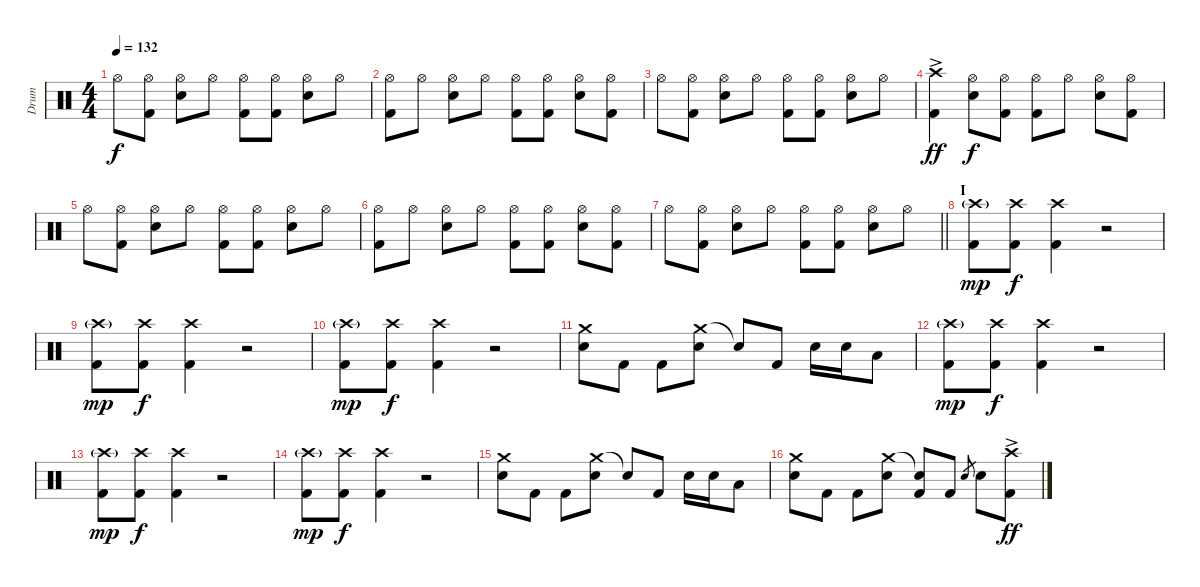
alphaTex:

\track ("Drum" "Drum") {instrument percussion}
\staff {score}
\articulation defaults
\ts (4 4)
\tempo 132
\clef neutral
\ks c "Hi-Hat (open)".8{dy f}
("Hi-Hat (open)" "Kick (hit) 2").8 ("Hi-Hat (open)" "Electric Snare (hit)").8 "Hi-Hat (open)".8 ("Hi-Hat (open)" "Kick (hit) 2").8 ("Hi-Hat (open)" "Kick (hit) 2").8 ("Hi-Hat (open)" "Electric Snare (hit)").8 "Hi-Hat (open)".8 |
("Hi-Hat (open)" "Kick (hit) 2").8 "Hi-Hat (open)".8 ("Hi-Hat (open)" "Electric Snare (hit)").8 "Hi-Hat (open)".8 ("Hi-Hat (open)" "Kick (hit) 2").8 ("Hi-Hat (open)" "Kick (hit) 2").8 ("Hi-Hat (open)" "Electric Snare (hit)").8 ("Hi-Hat (open)" "Kick (hit) 2").8 |
"Hi-Hat (open)".8 ("Hi-Hat (open)" "Kick (hit) 2").8 ("Hi-Hat (open)" "Electric Snare (hit)").8 "Hi-Hat (open)".8 ("Hi-Hat (open)" "Kick (hit) 2").8 ("Hi-Hat (open)" "Kick (hit) 2").8 ("Hi-Hat (open)" "Electric Snare (hit)").8 "Hi-Hat (open)".8 |
("Crash high (hit)"{ac} "Kick (hit) 2").4{dy ff} ("Hi-Hat (open)" "Electric Snare (hit)").8{dy f} ("Hi-Hat (open)" "Kick (hit) 2").8 ("Hi-Hat (open)" "Kick (hit) 2").8 "Hi-Hat (open)".8 ("Hi-Hat (open)" "Electric Snare (hit)").8 ("Hi-Hat (open)" "Kick (hit) 2").8 |
"Hi-Hat (open)".8 ("Hi-Hat (open)" "Kick (hit) 2").8 ("Hi-Hat (open)" "Electric Snare (hit)").8 "Hi-Hat (open)".8 ("Hi-Hat (open)" "Kick (hit) 2").8 ("Hi-Hat (open)" "Kick (hit) 2").8 ("Hi-Hat (open)" "Electric Snare (hit)").8 "Hi-Hat (open)".8 |
("Hi-Hat (open)" "Kick (hit) 2").8 "Hi-Hat (open)".8 ("Hi-Hat (open)" "Electric Snare (hit)").8 "Hi-Hat (open)".8 ("Hi-Hat (open)" "Kick (hit) 2").8 ("Hi-Hat (open)" "Kick (hit) 2").8 ("Hi-Hat (open)" "Electric Snare (hit)").8 ("Hi-Hat (open)" "Kick (hit) 2").8 |
\barLineRight lightlight "Hi-Hat (open)".8
("Hi-Hat (open)" "Kick (hit) 2").8 ("Hi-Hat (open)" "Electric Snare (hit)").8 "Hi-Hat (open)".8 ("Hi-Hat (open)" "Kick (hit) 2").8 ("Hi-Hat (open)" "Kick (hit) 2").8 ("Hi-Hat (open)" "Electric Snare (hit)").8 "Hi-Hat (open)".8 |
\section ("" "I")
("Crash high (hit)"{g} "Kick (hit) 2").8{dy mp} ("Crash high (hit)" "Kick (hit) 2").8{dy f} ("Crash high (hit)" "Kick (hit) 2").4 r.2 |
("Crash high (hit)"{g} "Kick (hit) 2").8{dy mp} ("Crash high (hit)" "Kick (hit) 2").8{dy f} ("Crash high (hit)" "Kick (hit) 2").4 r.2 |
("Crash high (hit)"{g} "Kick (hit) 2").8{dy mp} ("Crash high (hit)" "Kick (hit) 2").8{dy f} ("Crash high (hit)" "Kick (hit) 2").4 r.2 |
("Crash medium (hit)" "Electric Snare (hit)").8 "Kick (hit) 2".8 "Kick (hit) 2".8 ("Crash medium (hit)" "Electric Snare (hit)").8 "Snare (hit)"{t}.8 "Kick (hit) 2".8 "Electric Snare (hit)".16 "Electric Snare (hit)".16 "Low Tom (hit)".8 |
("Crash high (hit)"{g} "Kick (hit) 2").8{dy mp} ("Crash high (hit)" "Kick (hit) 2").8{dy f} ("Crash high (hit)" "Kick (hit) 2").4 r.2 |
("Crash high (hit)"{g} "Kick (hit) 2").8{dy mp} ("Crash high (hit)" "Kick (hit) 2").8{dy f} ("Crash high (hit)" "Kick (hit) 2").4 r.2 |
("Crash high (hit)"{g} "Kick (hit) 2").8{dy mp} ("Crash high (hit)" "Kick (hit) 2").8{dy f} ("Crash high (hit)" "Kick (hit) 2").4 r.2 |
("Crash medium (hit)" "Electric Snare (hit)").8 "Kick (hit) 2".8 "Kick (hit) 2".8 ("Crash medium (hit)" "Electric Snare (hit)").8 "Snare (hit)"{t}.8 "Kick (hit) 2".8 "Electric Snare (hit)".16 "Electric Snare (hit)".16 "Low Tom (hit)".8 |
("Crash medium (hit)" "Electric Snare (hit)").8 "Kick (hit) 2".8 "Kick (hit) 2".8 ("Crash medium (hit)" "Electric Snare (hit)").8 ("Snare (hit)"{t} "Kick (hit) 2").8 "Kick (hit) 2".8 "Electric Snare (hit)".8{gr} "Electric Snare (hit)".8 ("Crash high (hit)"{ac} "Kick (hit) 2").8{dy ff}
